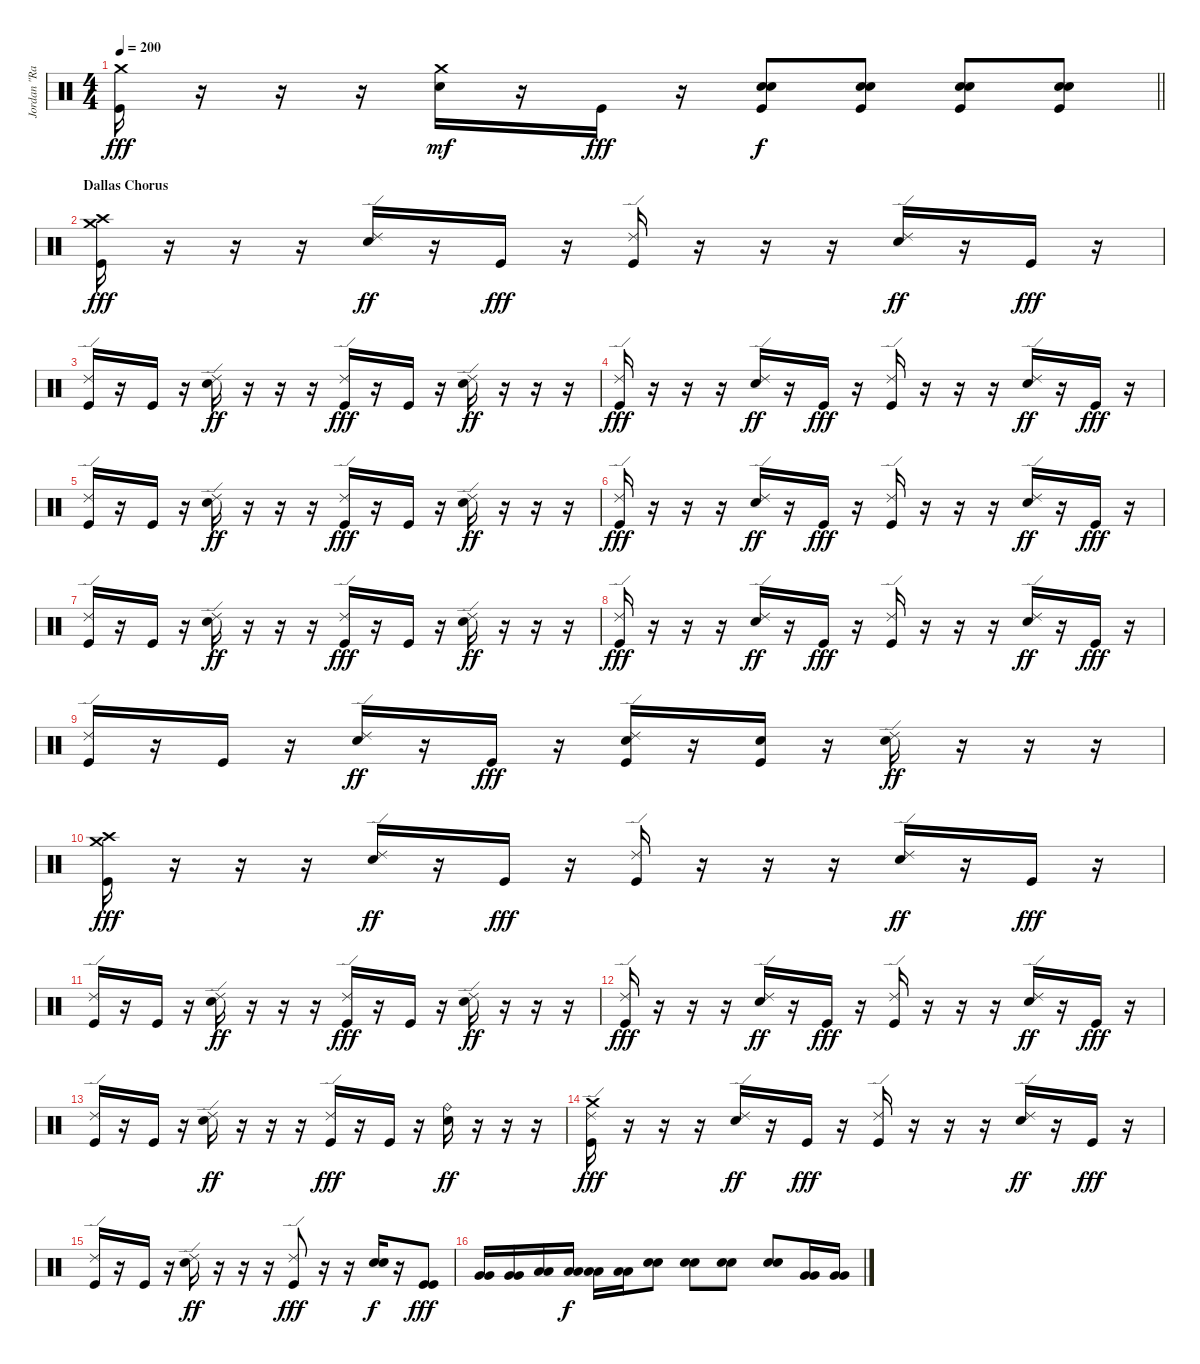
\track ("Jordan \"Ratbeard\" Hastings" "Jordan \"Ra") {instrument percussion}
\staff {score}
\articulation defaults
\ts (4 4)
\tempo 200
\clef neutral
\barLineRight lightlight
\ks c
("Crash medium (hit)" "Kick (hit)").16{dy fff} r.16 r.16 r.16 ("Crash medium (hit)" "Electric Snare (hit)").16{dy mf} r.16 "Kick (hit)".16{dy fff} r.16 ("Electric Snare (hit)" "Electric Snare (hit)" "Kick (hit)").8{dy f} ("Electric Snare (hit)" "Electric Snare (hit)" "Kick (hit)").8 ("Electric Snare (hit)" "Electric Snare (hit)" "Kick (hit)").8 ("Electric Snare (hit)" "Electric Snare (hit)" "Kick (hit)").8 |
\section ("" "Dallas Chorus")
("Crash high (hit)" "Crash medium (hit)" "Kick (hit)").16{dy fff} r.16 r.16 r.16 ("Ride (edge) 2" "Electric Snare (hit)").16{dy ff} r.16 "Kick (hit)".16{dy fff} r.16 ("Ride (edge) 2" "Kick (hit)").16 r.16 r.16 r.16 ("Ride (edge) 2" "Electric Snare (hit)").16{dy ff} r.16 "Kick (hit)".16{dy fff} r.16 |
("Ride (edge) 2" "Kick (hit)").16 r.16 "Kick (hit)".16 r.16 ("Ride (edge) 2" "Electric Snare (hit)").16{dy ff} r.16 r.16 r.16 ("Ride (edge) 2" "Kick (hit)").16{dy fff} r.16 "Kick (hit)".16 r.16 ("Ride (edge) 2" "Electric Snare (hit)").16{dy ff} r.16 r.16 r.16 |
("Ride (edge) 2" "Kick (hit)").16{dy fff} r.16 r.16 r.16 ("Ride (edge) 2" "Electric Snare (hit)").16{dy ff} r.16 "Kick (hit)".16{dy fff} r.16 ("Ride (edge) 2" "Kick (hit)").16 r.16 r.16 r.16 ("Ride (edge) 2" "Electric Snare (hit)").16{dy ff} r.16 "Kick (hit)".16{dy fff} r.16 |
("Ride (edge) 2" "Kick (hit)").16 r.16 "Kick (hit)".16 r.16 ("Ride (edge) 2" "Electric Snare (hit)").16{dy ff} r.16 r.16 r.16 ("Ride (edge) 2" "Kick (hit)").16{dy fff} r.16 "Kick (hit)".16 r.16 ("Ride (edge) 2" "Electric Snare (hit)").16{dy ff} r.16 r.16 r.16 |
("Ride (edge) 2" "Kick (hit)").16{dy fff} r.16 r.16 r.16 ("Ride (edge) 2" "Electric Snare (hit)").16{dy ff} r.16 "Kick (hit)".16{dy fff} r.16 ("Ride (edge) 2" "Kick (hit)").16 r.16 r.16 r.16 ("Ride (edge) 2" "Electric Snare (hit)").16{dy ff} r.16 "Kick (hit)".16{dy fff} r.16 |
("Ride (edge) 2" "Kick (hit)").16 r.16 "Kick (hit)".16 r.16 ("Ride (edge) 2" "Electric Snare (hit)").16{dy ff} r.16 r.16 r.16 ("Ride (edge) 2" "Kick (hit)").16{dy fff} r.16 "Kick (hit)".16 r.16 ("Ride (edge) 2" "Electric Snare (hit)").16{dy ff} r.16 r.16 r.16 |
("Ride (edge) 2" "Kick (hit)").16{dy fff} r.16 r.16 r.16 ("Ride (edge) 2" "Electric Snare (hit)").16{dy ff} r.16 "Kick (hit)".16{dy fff} r.16 ("Ride (edge) 2" "Kick (hit)").16 r.16 r.16 r.16 ("Ride (edge) 2" "Electric Snare (hit)").16{dy ff} r.16 "Kick (hit)".16{dy fff} r.16 |
("Ride (edge) 2" "Kick (hit)").16 r.16 "Kick (hit)".16 r.16 ("Ride (edge) 2" "Electric Snare (hit)").16{dy ff} r.16 "Kick (hit)".16{dy fff} r.16 ("Ride (edge) 2" "Electric Snare (hit)" "Kick (hit)").16 r.16 ("Electric Snare (hit)" "Kick (hit)").16 r.16 ("Ride (edge) 2" "Electric Snare (hit)").16{dy ff} r.16 r.16 r.16 |
("Crash medium (hit)" "Crash high (hit)" "Kick (hit)").16{dy fff} r.16 r.16 r.16 ("Ride (edge) 2" "Electric Snare (hit)").16{dy ff} r.16 "Kick (hit)".16{dy fff} r.16 ("Ride (edge) 2" "Kick (hit)").16 r.16 r.16 r.16 ("Ride (edge) 2" "Electric Snare (hit)").16{dy ff} r.16 "Kick (hit)".16{dy fff} r.16 |
("Ride (edge) 2" "Kick (hit)").16 r.16 "Kick (hit)".16 r.16 ("Ride (edge) 2" "Electric Snare (hit)").16{dy ff} r.16 r.16 r.16 ("Ride (edge) 2" "Kick (hit)").16{dy fff} r.16 "Kick (hit)".16 r.16 ("Ride (edge) 2" "Electric Snare (hit)").16{dy ff} r.16 r.16 r.16 |
("Ride (edge) 2" "Kick (hit)").16{dy fff} r.16 r.16 r.16 ("Ride (edge) 2" "Electric Snare (hit)").16{dy ff} r.16 "Kick (hit)".16{dy fff} r.16 ("Ride (edge) 2" "Kick (hit)").16 r.16 r.16 r.16 ("Ride (edge) 2" "Electric Snare (hit)").16{dy ff} r.16 "Kick (hit)".16{dy fff} r.16 |
("Ride (edge) 2" "Kick (hit)").16 r.16 "Kick (hit)".16 r.16 ("Ride (edge) 2" "Electric Snare (hit)").16{dy ff} r.16 r.16 r.16 ("Ride (edge) 2" "Kick (hit)").16{dy fff} r.16 "Kick (hit)".16 r.16 ("Ride (bell)" "Electric Snare (hit)").16{dy ff} r.16 r.16 r.16 |
("Ride (edge) 2" "Crash medium (hit)" "Kick (hit)").16{dy fff} r.16 r.16 r.16 ("Ride (edge) 2" "Electric Snare (hit)").16{dy ff} r.16 "Kick (hit)".16{dy fff} r.16 ("Ride (edge) 2" "Kick (hit)").16 r.16 r.16 r.16 ("Ride (edge) 2" "Electric Snare (hit)").16{dy ff} r.16 "Kick (hit)".16{dy fff} r.16 |
("Ride (edge) 2" "Kick (hit)").16 r.16 "Kick (hit)".16 r.16 ("Ride (edge) 2" "Electric Snare (hit)").16{dy ff} r.16 r.16 r.16 ("Ride (edge) 2" "Kick (hit)").8{dy fff} r.16 r.16 ("Electric Snare (hit)" "Electric Snare (hit)").16{dy f} r.16 ("Kick (hit)" "Kick (hit)").8{dy fff} |
("Very Low Tom (hit)" "Very Low Tom (hit)").16 ("Very Low Tom (hit)" "Very Low Tom (hit)").16 ("Low Tom (hit)" "Low Tom (hit)").16 ("Low Tom (hit)" "Low Tom (hit)").16{dy f} ("Low Floor Tom (hit)" "Low Floor Tom (hit)").16 ("Low Floor Tom (hit)" "Low Floor Tom (hit)").16 ("Electric Snare (hit)" "Electric Snare (hit)").8 ("Electric Snare (hit)" "Electric Snare (hit)").8 ("Electric Snare (hit)" "Electric Snare (hit)").8 ("Electric Snare (hit)" "Electric Snare (hit)").8 ("Very Low Tom (hit)" "Very Low Tom (hit)").16 ("Very Low Tom (hit)" "Very Low Tom (hit)").16
